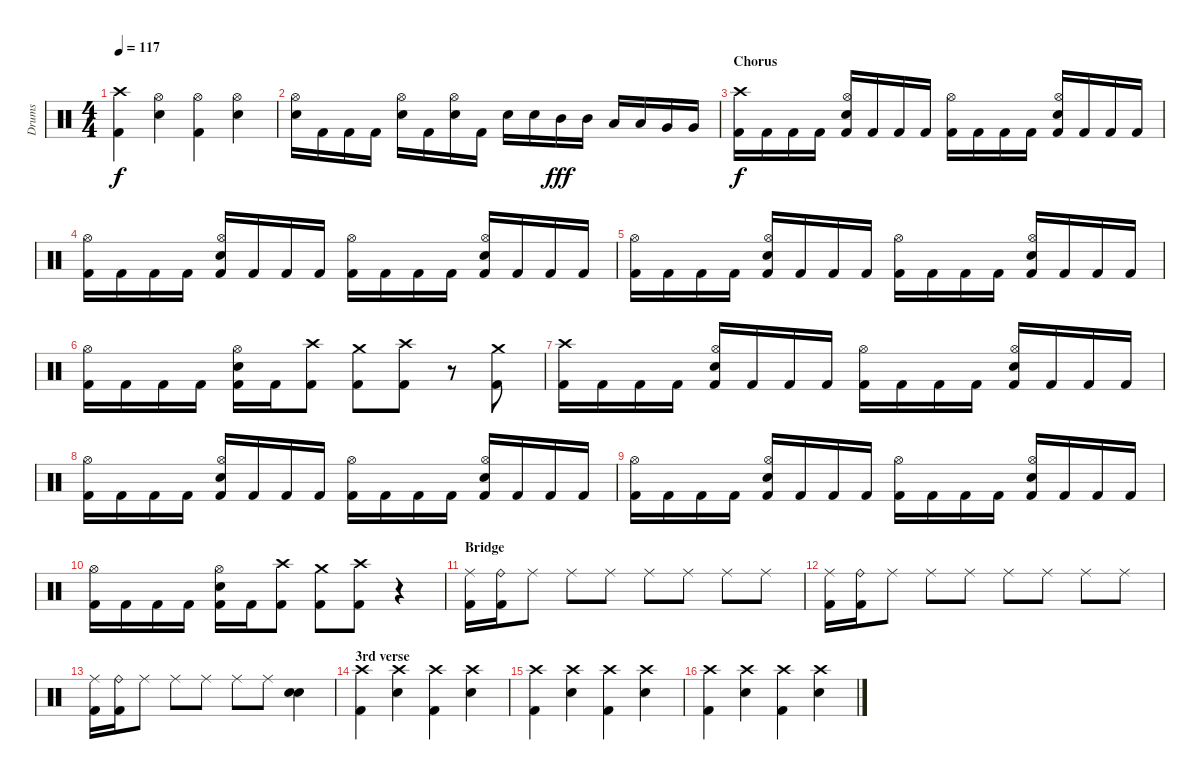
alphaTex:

\track ("Drums" "Drums") {instrument percussion}
\staff {score}
\articulation defaults
\ts (4 4)
\tempo 117
\clef neutral
\ks c
("Crash high (hit)" "Kick (hit) 2").4{dy f} ("Hi-Hat (open)" "Snare (hit) 2").4 ("Hi-Hat (open)" "Kick (hit) 2").4 ("Hi-Hat (open)" "Snare (hit) 2").4 |
("Hi-Hat (open)" "Snare (hit) 2").16 "Kick (hit) 2".16 "Kick (hit) 2".16 "Kick (hit) 2".16 ("Hi-Hat (open)" "Snare (hit) 2").16 "Kick (hit) 2".16 ("Hi-Hat (open)" "Snare (hit) 2").16 "Kick (hit) 2".16 "Snare (hit) 2".16 "Snare (hit) 2".16 "Mid Tom (hit)".16{dy fff} "Mid Tom (hit)".16 "Low Tom (hit)".16 "Low Tom (hit)".16 "Very Low Tom (hit)".16 "Very Low Tom (hit)".16 |
\section ("" "Chorus")
("Crash high (hit)" "Kick (hit) 2").16{dy f} "Kick (hit) 2".16 "Kick (hit) 2".16 "Kick (hit) 2".16 ("Hi-Hat (open)" "Snare (hit) 2" "Kick (hit) 2").16 "Kick (hit) 2".16 "Kick (hit) 2".16 "Kick (hit) 2".16 ("Hi-Hat (open)" "Kick (hit) 2").16 "Kick (hit) 2".16 "Kick (hit) 2".16 "Kick (hit) 2".16 ("Hi-Hat (open)" "Snare (hit) 2" "Kick (hit) 2").16 "Kick (hit) 2".16 "Kick (hit) 2".16 "Kick (hit) 2".16 |
("Hi-Hat (open)" "Kick (hit) 2").16 "Kick (hit) 2".16 "Kick (hit) 2".16 "Kick (hit) 2".16 ("Hi-Hat (open)" "Snare (hit) 2" "Kick (hit) 2").16 "Kick (hit) 2".16 "Kick (hit) 2".16 "Kick (hit) 2".16 ("Hi-Hat (open)" "Kick (hit) 2").16 "Kick (hit) 2".16 "Kick (hit) 2".16 "Kick (hit) 2".16 ("Hi-Hat (open)" "Snare (hit) 2" "Kick (hit) 2").16 "Kick (hit) 2".16 "Kick (hit) 2".16 "Kick (hit) 2".16 |
("Hi-Hat (open)" "Kick (hit) 2").16 "Kick (hit) 2".16 "Kick (hit) 2".16 "Kick (hit) 2".16 ("Hi-Hat (open)" "Snare (hit) 2" "Kick (hit) 2").16 "Kick (hit) 2".16 "Kick (hit) 2".16 "Kick (hit) 2".16 ("Hi-Hat (open)" "Kick (hit) 2").16 "Kick (hit) 2".16 "Kick (hit) 2".16 "Kick (hit) 2".16 ("Hi-Hat (open)" "Snare (hit) 2" "Kick (hit) 2").16 "Kick (hit) 2".16 "Kick (hit) 2".16 "Kick (hit) 2".16 |
("Hi-Hat (open)" "Kick (hit) 2").16 "Kick (hit) 2".16 "Kick (hit) 2".16 "Kick (hit) 2".16 ("Hi-Hat (open)" "Snare (hit) 2" "Kick (hit) 2").16 "Kick (hit) 2".16 ("Crash high (hit)" "Kick (hit) 2").8 ("Crash medium (hit)" "Kick (hit) 2").8 ("Crash high (hit)" "Kick (hit) 2").8 r.8 ("Crash medium (hit)" "Kick (hit) 2").8 |
("Crash high (hit)" "Kick (hit) 2").16 "Kick (hit) 2".16 "Kick (hit) 2".16 "Kick (hit) 2".16 ("Hi-Hat (open)" "Snare (hit) 2" "Kick (hit) 2").16 "Kick (hit) 2".16 "Kick (hit) 2".16 "Kick (hit) 2".16 ("Hi-Hat (open)" "Kick (hit) 2").16 "Kick (hit) 2".16 "Kick (hit) 2".16 "Kick (hit) 2".16 ("Hi-Hat (open)" "Snare (hit) 2" "Kick (hit) 2").16 "Kick (hit) 2".16 "Kick (hit) 2".16 "Kick (hit) 2".16 |
("Hi-Hat (open)" "Kick (hit) 2").16 "Kick (hit) 2".16 "Kick (hit) 2".16 "Kick (hit) 2".16 ("Hi-Hat (open)" "Snare (hit) 2" "Kick (hit) 2").16 "Kick (hit) 2".16 "Kick (hit) 2".16 "Kick (hit) 2".16 ("Hi-Hat (open)" "Kick (hit) 2").16 "Kick (hit) 2".16 "Kick (hit) 2".16 "Kick (hit) 2".16 ("Hi-Hat (open)" "Snare (hit) 2" "Kick (hit) 2").16 "Kick (hit) 2".16 "Kick (hit) 2".16 "Kick (hit) 2".16 |
("Hi-Hat (open)" "Kick (hit) 2").16 "Kick (hit) 2".16 "Kick (hit) 2".16 "Kick (hit) 2".16 ("Hi-Hat (open)" "Snare (hit) 2" "Kick (hit) 2").16 "Kick (hit) 2".16 "Kick (hit) 2".16 "Kick (hit) 2".16 ("Hi-Hat (open)" "Kick (hit) 2").16 "Kick (hit) 2".16 "Kick (hit) 2".16 "Kick (hit) 2".16 ("Hi-Hat (open)" "Snare (hit) 2" "Kick (hit) 2").16 "Kick (hit) 2".16 "Kick (hit) 2".16 "Kick (hit) 2".16 |
("Hi-Hat (open)" "Kick (hit) 2").16 "Kick (hit) 2".16 "Kick (hit) 2".16 "Kick (hit) 2".16 ("Hi-Hat (open)" "Snare (hit) 2" "Kick (hit) 2").16 "Kick (hit) 2".16 ("Crash high (hit)" "Kick (hit) 2").8 ("Crash medium (hit)" "Kick (hit) 2").8 ("Crash high (hit)" "Kick (hit) 2").8 r.4 |
\section ("" "Bridge")
("Ride (middle)" "Kick (hit) 2").16 ("Ride (bell)" "Kick (hit) 2").16 "Ride (middle)".8 "Ride (middle)".8 "Ride (middle)".8 "Ride (middle)".8 "Ride (middle)".8 "Ride (middle)".8 "Ride (middle)".8 |
("Ride (middle)" "Kick (hit) 2").16 ("Ride (bell)" "Kick (hit) 2").16 "Ride (middle)".8 "Ride (middle)".8 "Ride (middle)".8 "Ride (middle)".8 "Ride (middle)".8 "Ride (middle)".8 "Ride (middle)".8 |
("Ride (middle)" "Kick (hit) 2").16 ("Ride (bell)" "Kick (hit) 2").16 "Ride (middle)".8 "Ride (middle)".8 "Ride (middle)".8 "Ride (middle)".8 "Ride (middle)".8 ("Snare (hit) 2" "Snare (hit) 2").4 |
\section ("" "3rd verse")
("Crash high (hit)" "Kick (hit) 2").4 ("Crash high (hit)" "Snare (hit) 2").4 ("Crash high (hit)" "Kick (hit) 2").4 ("Crash high (hit)" "Snare (hit) 2").4 |
("Crash high (hit)" "Kick (hit) 2").4 ("Crash high (hit)" "Snare (hit) 2").4 ("Crash high (hit)" "Kick (hit) 2").4 ("Crash high (hit)" "Snare (hit) 2").4 |
("Crash high (hit)" "Kick (hit) 2").4 ("Crash high (hit)" "Snare (hit) 2").4 ("Crash high (hit)" "Kick (hit) 2").4 ("Crash high (hit)" "Snare (hit) 2").4
